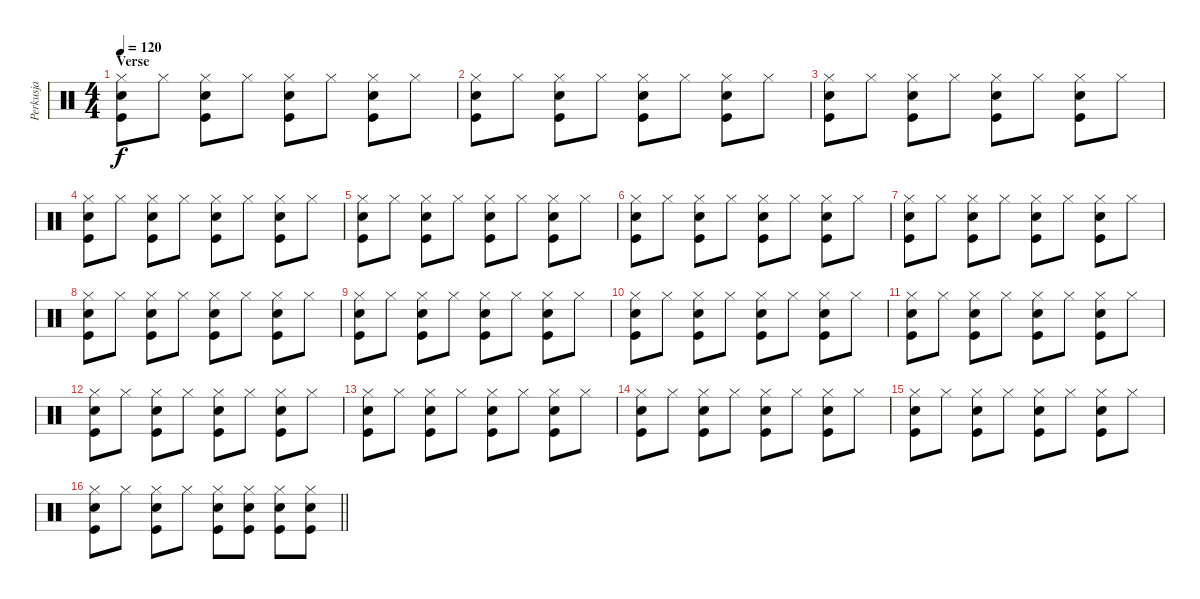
\track ("Perkusja" "Perkusja") {instrument percussion}
\staff {score}
\articulation defaults
\ts (4 4)
\section ("" "Verse")
\tempo 120
\clef neutral
\ks c
("Snare (hit) 2" "Kick (hit)" "Hi-Hat (closed)").8{dy f} "Hi-Hat (closed)".8 ("Kick (hit)" "Snare (hit) 2" "Hi-Hat (closed)").8 "Hi-Hat (closed)".8 ("Snare (hit) 2" "Kick (hit)" "Hi-Hat (closed)").8 "Hi-Hat (closed)".8 ("Kick (hit)" "Snare (hit) 2" "Hi-Hat (closed)").8 "Hi-Hat (closed)".8 |
("Snare (hit) 2" "Kick (hit)" "Hi-Hat (closed)").8 "Hi-Hat (closed)".8 ("Kick (hit)" "Snare (hit) 2" "Hi-Hat (closed)").8 "Hi-Hat (closed)".8 ("Snare (hit) 2" "Kick (hit)" "Hi-Hat (closed)").8 "Hi-Hat (closed)".8 ("Kick (hit)" "Snare (hit) 2" "Hi-Hat (closed)").8 "Hi-Hat (closed)".8 |
("Snare (hit) 2" "Kick (hit)" "Hi-Hat (closed)").8 "Hi-Hat (closed)".8 ("Kick (hit)" "Snare (hit) 2" "Hi-Hat (closed)").8 "Hi-Hat (closed)".8 ("Snare (hit) 2" "Kick (hit)" "Hi-Hat (closed)").8 "Hi-Hat (closed)".8 ("Kick (hit)" "Snare (hit) 2" "Hi-Hat (closed)").8 "Hi-Hat (closed)".8 |
("Snare (hit) 2" "Kick (hit)" "Hi-Hat (closed)").8 "Hi-Hat (closed)".8 ("Kick (hit)" "Snare (hit) 2" "Hi-Hat (closed)").8 "Hi-Hat (closed)".8 ("Snare (hit) 2" "Kick (hit)" "Hi-Hat (closed)").8 "Hi-Hat (closed)".8 ("Kick (hit)" "Snare (hit) 2" "Hi-Hat (closed)").8 "Hi-Hat (closed)".8 |
("Snare (hit) 2" "Kick (hit)" "Hi-Hat (closed)").8 "Hi-Hat (closed)".8 ("Kick (hit)" "Snare (hit) 2" "Hi-Hat (closed)").8 "Hi-Hat (closed)".8 ("Snare (hit) 2" "Kick (hit)" "Hi-Hat (closed)").8 "Hi-Hat (closed)".8 ("Kick (hit)" "Snare (hit) 2" "Hi-Hat (closed)").8 "Hi-Hat (closed)".8 |
("Snare (hit) 2" "Kick (hit)" "Hi-Hat (closed)").8 "Hi-Hat (closed)".8 ("Kick (hit)" "Snare (hit) 2" "Hi-Hat (closed)").8 "Hi-Hat (closed)".8 ("Snare (hit) 2" "Kick (hit)" "Hi-Hat (closed)").8 "Hi-Hat (closed)".8 ("Kick (hit)" "Snare (hit) 2" "Hi-Hat (closed)").8 "Hi-Hat (closed)".8 |
("Snare (hit) 2" "Kick (hit)" "Hi-Hat (closed)").8 "Hi-Hat (closed)".8 ("Kick (hit)" "Snare (hit) 2" "Hi-Hat (closed)").8 "Hi-Hat (closed)".8 ("Snare (hit) 2" "Kick (hit)" "Hi-Hat (closed)").8 "Hi-Hat (closed)".8 ("Kick (hit)" "Snare (hit) 2" "Hi-Hat (closed)").8 "Hi-Hat (closed)".8 |
("Snare (hit) 2" "Kick (hit)" "Hi-Hat (closed)").8 "Hi-Hat (closed)".8 ("Kick (hit)" "Snare (hit) 2" "Hi-Hat (closed)").8 "Hi-Hat (closed)".8 ("Snare (hit) 2" "Kick (hit)" "Hi-Hat (closed)").8 "Hi-Hat (closed)".8 ("Kick (hit)" "Snare (hit) 2" "Hi-Hat (closed)").8 "Hi-Hat (closed)".8 |
("Snare (hit) 2" "Kick (hit)" "Hi-Hat (closed)").8 "Hi-Hat (closed)".8 ("Kick (hit)" "Snare (hit) 2" "Hi-Hat (closed)").8 "Hi-Hat (closed)".8 ("Snare (hit) 2" "Kick (hit)" "Hi-Hat (closed)").8 "Hi-Hat (closed)".8 ("Kick (hit)" "Snare (hit) 2" "Hi-Hat (closed)").8 "Hi-Hat (closed)".8 |
("Snare (hit) 2" "Kick (hit)" "Hi-Hat (closed)").8 "Hi-Hat (closed)".8 ("Kick (hit)" "Snare (hit) 2" "Hi-Hat (closed)").8 "Hi-Hat (closed)".8 ("Snare (hit) 2" "Kick (hit)" "Hi-Hat (closed)").8 "Hi-Hat (closed)".8 ("Kick (hit)" "Snare (hit) 2" "Hi-Hat (closed)").8 "Hi-Hat (closed)".8 |
("Snare (hit) 2" "Kick (hit)" "Hi-Hat (closed)").8 "Hi-Hat (closed)".8 ("Kick (hit)" "Snare (hit) 2" "Hi-Hat (closed)").8 "Hi-Hat (closed)".8 ("Snare (hit) 2" "Kick (hit)" "Hi-Hat (closed)").8 "Hi-Hat (closed)".8 ("Kick (hit)" "Snare (hit) 2" "Hi-Hat (closed)").8 "Hi-Hat (closed)".8 |
("Snare (hit) 2" "Kick (hit)" "Hi-Hat (closed)").8 "Hi-Hat (closed)".8 ("Kick (hit)" "Snare (hit) 2" "Hi-Hat (closed)").8 "Hi-Hat (closed)".8 ("Snare (hit) 2" "Kick (hit)" "Hi-Hat (closed)").8 "Hi-Hat (closed)".8 ("Kick (hit)" "Snare (hit) 2" "Hi-Hat (closed)").8 "Hi-Hat (closed)".8 |
("Snare (hit) 2" "Kick (hit)" "Hi-Hat (closed)").8 "Hi-Hat (closed)".8 ("Kick (hit)" "Snare (hit) 2" "Hi-Hat (closed)").8 "Hi-Hat (closed)".8 ("Snare (hit) 2" "Kick (hit)" "Hi-Hat (closed)").8 "Hi-Hat (closed)".8 ("Kick (hit)" "Snare (hit) 2" "Hi-Hat (closed)").8 "Hi-Hat (closed)".8 |
("Snare (hit) 2" "Kick (hit)" "Hi-Hat (closed)").8 "Hi-Hat (closed)".8 ("Kick (hit)" "Snare (hit) 2" "Hi-Hat (closed)").8 "Hi-Hat (closed)".8 ("Snare (hit) 2" "Kick (hit)" "Hi-Hat (closed)").8 "Hi-Hat (closed)".8 ("Kick (hit)" "Snare (hit) 2" "Hi-Hat (closed)").8 "Hi-Hat (closed)".8 |
("Snare (hit) 2" "Kick (hit)" "Hi-Hat (closed)").8 "Hi-Hat (closed)".8 ("Kick (hit)" "Snare (hit) 2" "Hi-Hat (closed)").8 "Hi-Hat (closed)".8 ("Snare (hit) 2" "Kick (hit)" "Hi-Hat (closed)").8 "Hi-Hat (closed)".8 ("Kick (hit)" "Snare (hit) 2" "Hi-Hat (closed)").8 "Hi-Hat (closed)".8 |
\barLineRight lightlight
("Snare (hit) 2" "Kick (hit)" "Hi-Hat (closed)").8 "Hi-Hat (closed)".8 ("Kick (hit)" "Snare (hit) 2" "Hi-Hat (closed)").8 "Hi-Hat (closed)".8 ("Snare (hit) 2" "Kick (hit)" "Hi-Hat (closed)").8 ("Snare (hit) 2" "Kick (hit)" "Hi-Hat (closed)").8 ("Kick (hit)" "Snare (hit) 2" "Hi-Hat (closed)").8 ("Kick (hit)" "Snare (hit) 2" "Hi-Hat (closed)").8
